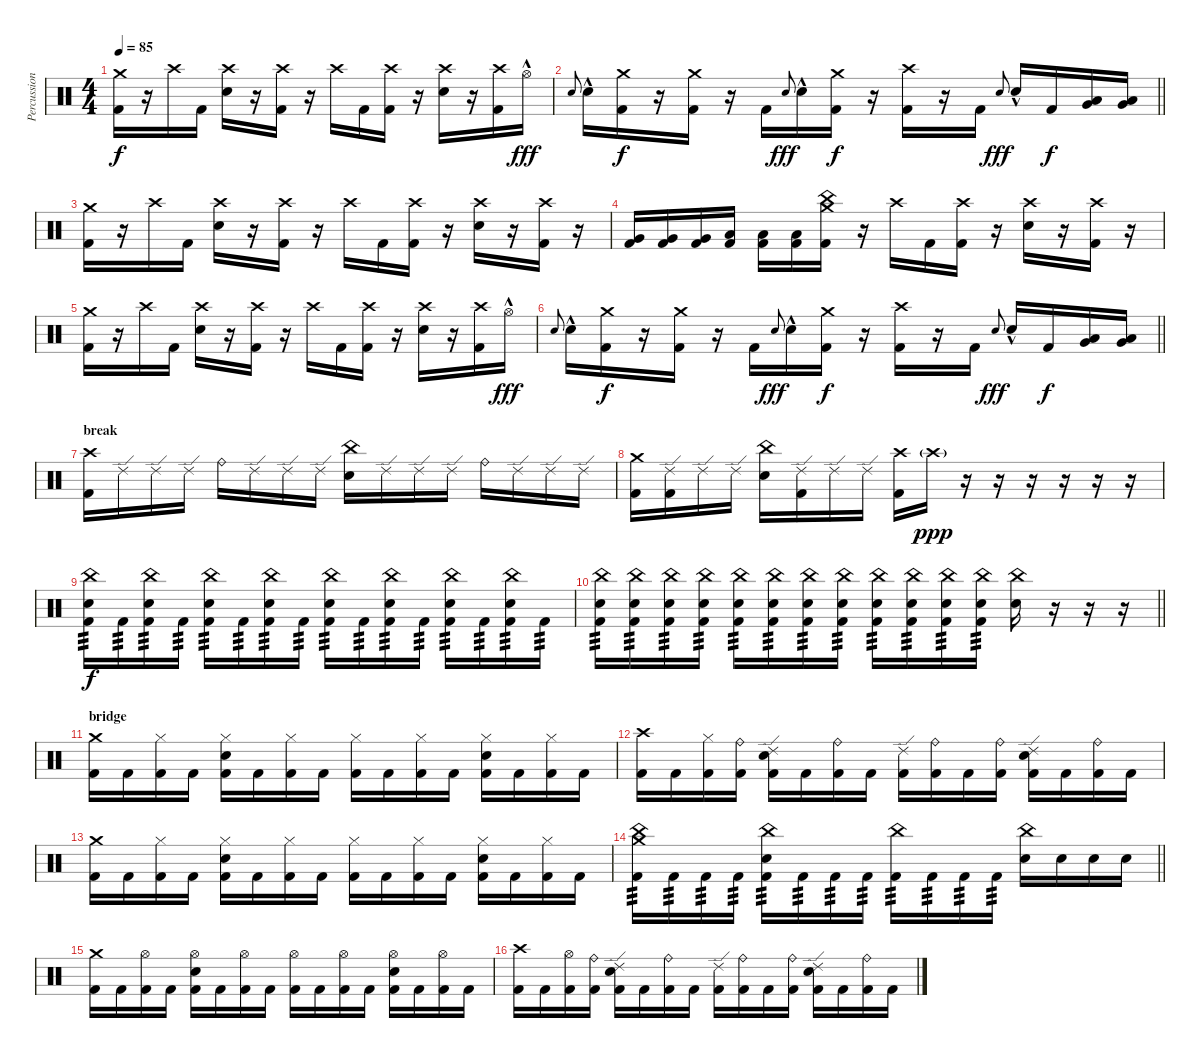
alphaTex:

\track ("Percussion" "Percussion") {instrument percussion}
\staff {score}
\articulation defaults
\ts (4 4)
\tempo 85
\clef neutral
\ks c
("Crash medium (hit)" "Kick (hit) 2").16{dy f} r.16 "Crash high (hit)".16 "Kick (hit) 2".16 ("Crash high (hit)" "Snare (hit) 2").16 r.16 ("Crash high (hit)" "Kick (hit) 2").16 r.16 "Crash high (hit)".16 "Kick (hit) 2".16 ("Crash high (hit)" "Kick (hit) 2").16 r.16 ("Crash high (hit)" "Snare (hit) 2").16 r.16 ("Crash high (hit)" "Kick (hit) 2").16 "Hi-Hat (open)"{hac}.16{dy fff} |
\barLineRight lightlight "Snare (hit) 2".8{gr onbeat} "Snare (hit) 2"{hac}.16
("Crash medium (hit)" "Kick (hit) 2").16{dy f} r.16 ("Crash medium (hit)" "Kick (hit) 2").16 r.16 "Kick (hit) 2".16 "Snare (hit) 2".8{gr onbeat dy fff} "Snare (hit) 2"{hac}.16 ("Crash medium (hit)" "Kick (hit) 2").16{dy f} r.16 ("Crash high (hit)" "Kick (hit) 2").16 r.16 "Kick (hit) 2".16 "Snare (hit) 2".8{gr onbeat dy fff} "Snare (hit) 2"{hac}.16 "Kick (hit) 2".16{dy f} ("Very Low Tom (hit)" "Low Floor Tom (hit)").16 ("Very Low Tom (hit)" "Low Floor Tom (hit)").16 |
("Crash medium (hit)" "Kick (hit) 2").16 r.16 "Crash high (hit)".16 "Kick (hit) 2".16 ("Crash high (hit)" "Snare (hit) 2").16 r.16 ("Crash high (hit)" "Kick (hit) 2").16 r.16 "Crash high (hit)".16 "Kick (hit) 2".16 ("Crash high (hit)" "Kick (hit) 2").16 r.16 ("Crash high (hit)" "Snare (hit) 2").16 r.16 ("Crash high (hit)" "Kick (hit) 2").16 r.16 |
("Very Low Tom (hit)" "Kick (hit) 2").16 ("Very Low Tom (hit)" "Kick (hit) 2").16 ("Very Low Tom (hit)" "Kick (hit) 2").16 ("Low Floor Tom (hit)" "Kick (hit) 2").16 ("Low Floor Tom (hit)" "Kick (hit) 2").16 ("Low Floor Tom (hit)" "Kick (hit) 2").16 ("China (hit)" "Crash medium (hit)" "Kick (hit) 2").16 r.16 "Crash high (hit)".16 "Kick (hit) 2".16 ("Crash high (hit)" "Kick (hit) 2").16 r.16 ("Crash high (hit)" "Snare (hit) 2").16 r.16 ("Crash high (hit)" "Kick (hit) 2").16 r.16 |
("Crash medium (hit)" "Kick (hit) 2").16 r.16 "Crash high (hit)".16 "Kick (hit) 2".16 ("Crash high (hit)" "Snare (hit) 2").16 r.16 ("Crash high (hit)" "Kick (hit) 2").16 r.16 "Crash high (hit)".16 "Kick (hit) 2".16 ("Crash high (hit)" "Kick (hit) 2").16 r.16 ("Crash high (hit)" "Snare (hit) 2").16 r.16 ("Crash high (hit)" "Kick (hit) 2").16 "Hi-Hat (open)"{hac}.16{dy fff} |
\barLineRight lightlight "Snare (hit) 2".8{gr onbeat} "Snare (hit) 2"{hac}.16
("Crash medium (hit)" "Kick (hit) 2").16{dy f} r.16 ("Crash medium (hit)" "Kick (hit) 2").16 r.16 "Kick (hit) 2".16 "Snare (hit) 2".8{gr onbeat dy fff} "Snare (hit) 2"{hac}.16 ("Crash medium (hit)" "Kick (hit) 2").16{dy f} r.16 ("Crash high (hit)" "Kick (hit) 2").16 r.16 "Kick (hit) 2".16 "Snare (hit) 2".8{gr onbeat dy fff} "Snare (hit) 2"{hac}.16 "Kick (hit) 2".16{dy f} ("Very Low Tom (hit)" "Low Floor Tom (hit)").16 ("Very Low Tom (hit)" "Low Floor Tom (hit)").16 |
\section ("" "break")
("Crash high (hit)" "Kick (hit) 2").16 "Ride (edge) 2".16 "Ride (edge) 2".16 "Ride (edge) 2".16 "Ride (bell)".16 "Ride (edge) 2".16 "Ride (edge) 2".16 "Ride (edge) 2".16 ("China (hit)" "Snare (hit) 2").16 "Ride (edge) 2".16 "Ride (edge) 2".16 "Ride (edge) 2".16 "Ride (bell)".16 "Ride (edge) 2".16 "Ride (edge) 2".16 "Ride (edge) 2".16 |
("Crash medium (hit)" "Kick (hit) 2").16 ("Ride (edge) 2" "Kick (hit) 2").16 "Ride (edge) 2".16 "Ride (edge) 2".16 ("China (hit)" "Snare (hit) 2").16 ("Ride (edge) 2" "Kick (hit) 2").16 "Ride (edge) 2".16 "Ride (edge) 2".16 ("Crash high (hit)" "Kick (hit) 2").16 "Crash high (hit)"{g}.16{dy ppp} r.16 r.16 r.16 r.16 r.16 r.16 |
("China (hit)" "Snare (hit) 2" "Kick (hit) 2").16{tp 3 dy f} "Kick (hit) 2".16{tp 3} ("China (hit)" "Snare (hit) 2" "Kick (hit) 2").16{tp 3} "Kick (hit) 2".16{tp 3} ("China (hit)" "Snare (hit) 2" "Kick (hit) 2").16{tp 3} "Kick (hit) 2".16{tp 3} ("China (hit)" "Snare (hit) 2" "Kick (hit) 2").16{tp 3} "Kick (hit) 2".16{tp 3} ("China (hit)" "Snare (hit) 2" "Kick (hit) 2").16{tp 3} "Kick (hit) 2".16{tp 3} ("China (hit)" "Snare (hit) 2" "Kick (hit) 2").16{tp 3} "Kick (hit) 2".16{tp 3} ("China (hit)" "Snare (hit) 2" "Kick (hit) 2").16{tp 3} "Kick (hit) 2".16{tp 3} ("China (hit)" "Snare (hit) 2" "Kick (hit) 2").16{tp 3} "Kick (hit) 2".16{tp 3} |
\barLineRight lightlight
("China (hit)" "Snare (hit) 2" "Kick (hit) 2").16{tp 3} ("China (hit)" "Snare (hit) 2" "Kick (hit) 2").16{tp 3} ("China (hit)" "Snare (hit) 2" "Kick (hit) 2").16{tp 3} ("China (hit)" "Snare (hit) 2" "Kick (hit) 2").16{tp 3} ("China (hit)" "Snare (hit) 2" "Kick (hit) 2").16{tp 3} ("China (hit)" "Snare (hit) 2" "Kick (hit) 2").16{tp 3} ("China (hit)" "Snare (hit) 2" "Kick (hit) 2").16{tp 3} ("China (hit)" "Snare (hit) 2" "Kick (hit) 2").16{tp 3} ("China (hit)" "Snare (hit) 2" "Kick (hit) 2").16{tp 3} ("China (hit)" "Snare (hit) 2" "Kick (hit) 2").16{tp 3} ("China (hit)" "Snare (hit) 2" "Kick (hit) 2").16{tp 3} ("China (hit)" "Snare (hit) 2" "Kick (hit) 2").16{tp 3} ("China (hit)" "Snare (hit) 2").16 r.16 r.16 r.16 |
\section ("" "bridge")
("Crash medium (hit)" "Kick (hit) 2").16 "Kick (hit) 2".16 ("Hi-Hat (closed)" "Kick (hit) 2").16 "Kick (hit) 2".16 ("Hi-Hat (closed)" "Snare (hit) 2" "Kick (hit) 2").16 "Kick (hit) 2".16 ("Hi-Hat (closed)" "Kick (hit) 2").16 "Kick (hit) 2".16 ("Hi-Hat (closed)" "Kick (hit) 2").16 "Kick (hit) 2".16 ("Hi-Hat (closed)" "Kick (hit) 2").16 "Kick (hit) 2".16 ("Hi-Hat (closed)" "Snare (hit) 2" "Kick (hit) 2").16 "Kick (hit) 2".16 ("Hi-Hat (closed)" "Kick (hit) 2").16 "Kick (hit) 2".16 |
("Crash high (hit)" "Kick (hit) 2").16 "Kick (hit) 2".16 ("Hi-Hat (closed)" "Kick (hit) 2").16 ("Ride (bell)" "Kick (hit) 2").16 ("Ride (edge) 2" "Snare (hit) 2" "Kick (hit) 2").16 "Kick (hit) 2".16 ("Ride (bell)" "Kick (hit) 2").16 "Kick (hit) 2".16 ("Ride (edge) 2" "Kick (hit) 2").16 ("Ride (bell)" "Kick (hit) 2").16 "Kick (hit) 2".16 ("Ride (bell)" "Kick (hit) 2").16 ("Ride (edge) 2" "Snare (hit) 2" "Kick (hit) 2").16 "Kick (hit) 2".16 ("Ride (bell)" "Kick (hit) 2").16 "Kick (hit) 2".16 |
("Crash medium (hit)" "Kick (hit) 2").16 "Kick (hit) 2".16 ("Hi-Hat (closed)" "Kick (hit) 2").16 "Kick (hit) 2".16 ("Hi-Hat (closed)" "Snare (hit) 2" "Kick (hit) 2").16 "Kick (hit) 2".16 ("Hi-Hat (closed)" "Kick (hit) 2").16 "Kick (hit) 2".16 ("Hi-Hat (closed)" "Kick (hit) 2").16 "Kick (hit) 2".16 ("Hi-Hat (closed)" "Kick (hit) 2").16 "Kick (hit) 2".16 ("Hi-Hat (closed)" "Snare (hit) 2" "Kick (hit) 2").16 "Kick (hit) 2".16 ("Hi-Hat (closed)" "Kick (hit) 2").16 "Kick (hit) 2".16 |
\barLineRight lightlight
("Crash medium (hit)" "China (hit)" "Kick (hit) 2").16{tp 3} "Kick (hit) 2".16{tp 3} "Kick (hit) 2".16{tp 3} "Kick (hit) 2".16{tp 3} ("China (hit)" "Snare (hit) 2" "Kick (hit) 2").16{tp 3} "Kick (hit) 2".16{tp 3} "Kick (hit) 2".16{tp 3} "Kick (hit) 2".16{tp 3} ("China (hit)" "Kick (hit) 2").16{tp 3} "Kick (hit) 2".16{tp 3} "Kick (hit) 2".16{tp 3} "Kick (hit) 2".16{tp 3} ("China (hit)" "Snare (hit) 2").16 "Snare (hit) 2".16 "Snare (hit) 2".16 "Snare (hit) 2".16 |
("Crash medium (hit)" "Kick (hit) 2").16 "Kick (hit) 2".16 ("Hi-Hat (open)" "Kick (hit) 2").16 "Kick (hit) 2".16 ("Hi-Hat (open)" "Snare (hit) 2" "Kick (hit) 2").16 "Kick (hit) 2".16 ("Hi-Hat (open)" "Kick (hit) 2").16 "Kick (hit) 2".16 ("Hi-Hat (open)" "Kick (hit) 2").16 "Kick (hit) 2".16 ("Hi-Hat (open)" "Kick (hit) 2").16 "Kick (hit) 2".16 ("Hi-Hat (open)" "Snare (hit) 2" "Kick (hit) 2").16 "Kick (hit) 2".16 ("Hi-Hat (open)" "Kick (hit) 2").16 "Kick (hit) 2".16 |
("Crash high (hit)" "Kick (hit) 2").16 "Kick (hit) 2".16 ("Hi-Hat (open)" "Kick (hit) 2").16 ("Ride (bell)" "Kick (hit) 2").16 ("Ride (edge) 2" "Snare (hit) 2" "Kick (hit) 2").16 "Kick (hit) 2".16 ("Ride (bell)" "Kick (hit) 2").16 "Kick (hit) 2".16 ("Ride (edge) 2" "Kick (hit) 2").16 ("Ride (bell)" "Kick (hit) 2").16 "Kick (hit) 2".16 ("Ride (bell)" "Kick (hit) 2").16 ("Ride (edge) 2" "Snare (hit) 2" "Kick (hit) 2").16 "Kick (hit) 2".16 ("Ride (bell)" "Kick (hit) 2").16 "Kick (hit) 2".16
